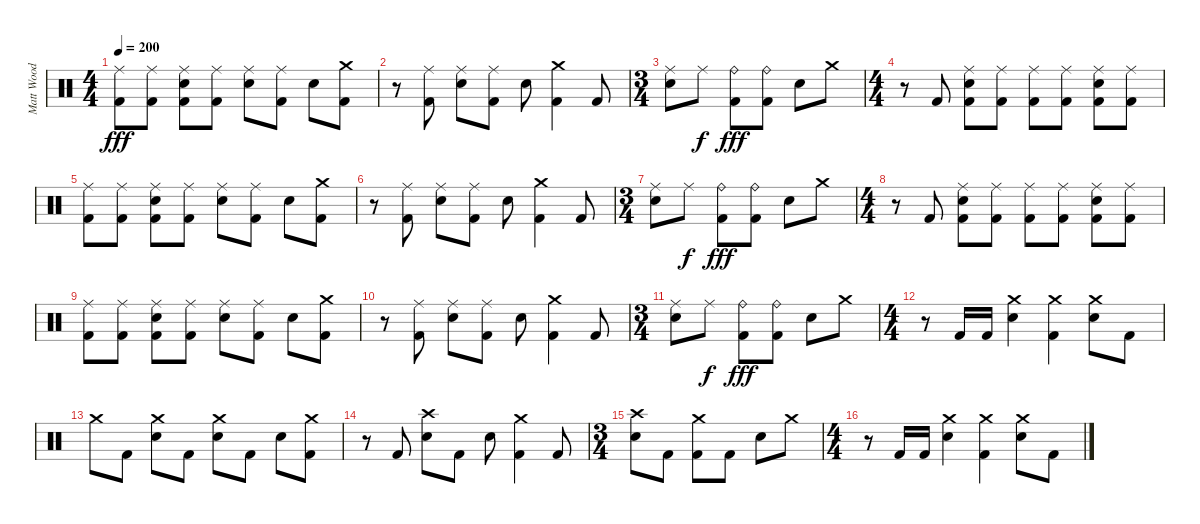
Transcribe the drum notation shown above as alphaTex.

\track ("Matt Wood" "Matt Wood") {instrument percussion}
\staff {score}
\articulation defaults
\ts (4 4)
\tempo 200
\clef neutral
\ks c
("Ride (middle)" "Kick (hit) 2").8{dy fff} ("Ride (middle)" "Kick (hit) 2").8 ("Ride (middle)" "Electric Snare (hit)" "Kick (hit) 2").8 ("Ride (middle)" "Kick (hit) 2").8 ("Ride (middle)" "Electric Snare (hit)").8 ("Ride (middle)" "Kick (hit) 2").8 "Electric Snare (hit)".8 ("Crash medium (hit)" "Kick (hit) 2").8 |
r.8 ("Ride (middle)" "Kick (hit) 2").8 ("Ride (middle)" "Electric Snare (hit)").8 ("Ride (middle)" "Kick (hit) 2").8 "Electric Snare (hit)".8 ("Crash medium (hit)" "Kick (hit) 2").4 "Kick (hit) 2".8 |
\ts (3 4)
("Ride (middle)" "Electric Snare (hit)").8 "Ride (middle)".8{dy f} ("Ride (bell)" "Kick (hit) 2").8{dy fff} ("Ride (bell)" "Kick (hit) 2").8 "Electric Snare (hit)".8 "Crash medium (hit)".8 |
\ts (4 4)
r.8 "Kick (hit) 2".8 ("Ride (middle)" "Electric Snare (hit)" "Kick (hit) 2").8 ("Ride (middle)" "Kick (hit) 2").8 ("Ride (middle)" "Kick (hit) 2").8 ("Ride (middle)" "Kick (hit) 2").8 ("Ride (middle)" "Electric Snare (hit)" "Kick (hit) 2").8 ("Ride (middle)" "Kick (hit) 2").8 |
("Ride (middle)" "Kick (hit) 2").8 ("Ride (middle)" "Kick (hit) 2").8 ("Ride (middle)" "Electric Snare (hit)" "Kick (hit) 2").8 ("Ride (middle)" "Kick (hit) 2").8 ("Ride (middle)" "Electric Snare (hit)").8 ("Ride (middle)" "Kick (hit) 2").8 "Electric Snare (hit)".8 ("Crash medium (hit)" "Kick (hit) 2").8 |
r.8 ("Ride (middle)" "Kick (hit) 2").8 ("Ride (middle)" "Electric Snare (hit)").8 ("Ride (middle)" "Kick (hit) 2").8 "Electric Snare (hit)".8 ("Crash medium (hit)" "Kick (hit) 2").4 "Kick (hit) 2".8 |
\ts (3 4)
("Ride (middle)" "Electric Snare (hit)").8 "Ride (middle)".8{dy f} ("Ride (bell)" "Kick (hit) 2").8{dy fff} ("Ride (bell)" "Kick (hit) 2").8 "Electric Snare (hit)".8 "Crash medium (hit)".8 |
\ts (4 4)
r.8 "Kick (hit) 2".8 ("Ride (middle)" "Electric Snare (hit)" "Kick (hit) 2").8 ("Ride (middle)" "Kick (hit) 2").8 ("Ride (middle)" "Kick (hit) 2").8 ("Ride (middle)" "Kick (hit) 2").8 ("Ride (middle)" "Electric Snare (hit)" "Kick (hit) 2").8 ("Ride (middle)" "Kick (hit) 2").8 |
("Ride (middle)" "Kick (hit) 2").8 ("Ride (middle)" "Kick (hit) 2").8 ("Ride (middle)" "Electric Snare (hit)" "Kick (hit) 2").8 ("Ride (middle)" "Kick (hit) 2").8 ("Ride (middle)" "Electric Snare (hit)").8 ("Ride (middle)" "Kick (hit) 2").8 "Electric Snare (hit)".8 ("Crash medium (hit)" "Kick (hit) 2").8 |
r.8 ("Ride (middle)" "Kick (hit) 2").8 ("Ride (middle)" "Electric Snare (hit)").8 ("Ride (middle)" "Kick (hit) 2").8 "Electric Snare (hit)".8 ("Crash medium (hit)" "Kick (hit) 2").4 "Kick (hit) 2".8 |
\ts (3 4)
("Ride (middle)" "Electric Snare (hit)").8 "Ride (middle)".8{dy f} ("Ride (bell)" "Kick (hit) 2").8{dy fff} ("Ride (bell)" "Kick (hit) 2").8 "Electric Snare (hit)".8 "Crash medium (hit)".8 |
\ts (4 4)
r.8 "Kick (hit) 2".16 "Kick (hit) 2".16 ("Crash medium (hit)" "Electric Snare (hit)").4 ("Crash medium (hit)" "Kick (hit) 2").4 ("Crash medium (hit)" "Electric Snare (hit)").8 "Kick (hit) 2".8 |
"Crash medium (hit)".8 "Kick (hit) 2".8 ("Crash medium (hit)" "Electric Snare (hit)").8 "Kick (hit) 2".8 ("Crash medium (hit)" "Electric Snare (hit)").8 "Kick (hit) 2".8 "Electric Snare (hit)".8 ("Crash medium (hit)" "Kick (hit) 2").8 |
r.8 "Kick (hit) 2".8 ("Crash high (hit)" "Electric Snare (hit)").8 "Kick (hit) 2".8 "Electric Snare (hit)".8 ("Crash medium (hit)" "Kick (hit) 2").4 "Kick (hit) 2".8 |
\ts (3 4)
("Crash high (hit)" "Electric Snare (hit)").8 "Kick (hit) 2".8 ("Crash medium (hit)" "Kick (hit) 2").8 "Kick (hit) 2".8 "Electric Snare (hit)".8 "Crash medium (hit)".8 |
\ts (4 4)
r.8 "Kick (hit) 2".16 "Kick (hit) 2".16 ("Crash medium (hit)" "Electric Snare (hit)").4 ("Crash medium (hit)" "Kick (hit) 2").4 ("Crash medium (hit)" "Electric Snare (hit)").8 "Kick (hit) 2".8
